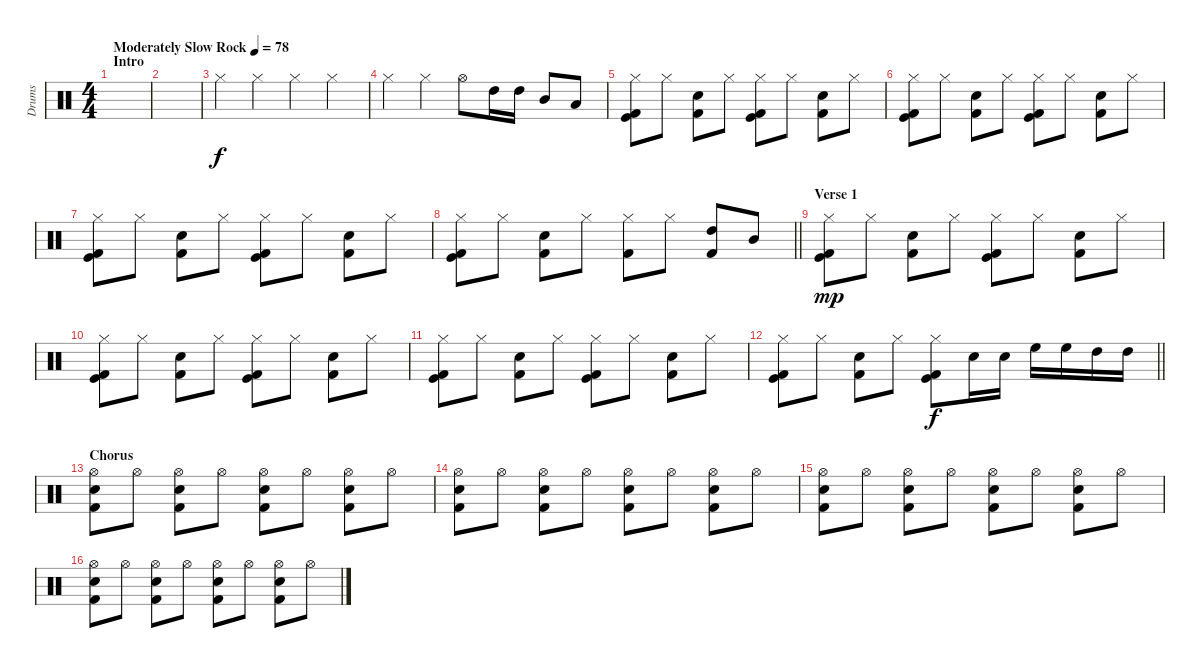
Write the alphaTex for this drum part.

\track ("Drums" "Drums") {instrument percussion}
\staff {score}
\articulation defaults
\ts (4 4)
\section ("" "Intro")
\tempo (78 "Moderately Slow Rock")
\clef neutral
\ks c
|
|
"Hi-Hat (closed)".4 "Hi-Hat (closed)".4 "Hi-Hat (closed)".4 "Hi-Hat (closed)".4 |
"Hi-Hat (closed)".4 "Hi-Hat (closed)".4 "Hi-Hat (open)".8 "High Tom (hit)".16 "High Tom (hit)".16 "Mid Tom (hit)".8 "Low Tom (hit)".8 |
("Hi-Hat (closed)" "Kick (hit)" "Kick (hit) 2").8 "Hi-Hat (closed)".8 ("Snare (hit) 2" "Kick (hit) 2").8 "Hi-Hat (closed)".8 ("Hi-Hat (closed)" "Kick (hit)" "Kick (hit) 2").8 "Hi-Hat (closed)".8 ("Snare (hit) 2" "Kick (hit) 2").8 "Hi-Hat (closed)".8 |
("Hi-Hat (closed)" "Kick (hit)" "Kick (hit) 2").8 "Hi-Hat (closed)".8 ("Snare (hit) 2" "Kick (hit) 2").8 "Hi-Hat (closed)".8 ("Hi-Hat (closed)" "Kick (hit)" "Kick (hit) 2").8 "Hi-Hat (closed)".8 ("Snare (hit) 2" "Kick (hit) 2").8 "Hi-Hat (closed)".8 |
("Hi-Hat (closed)" "Kick (hit)" "Kick (hit) 2").8 "Hi-Hat (closed)".8 ("Snare (hit) 2" "Kick (hit) 2").8 "Hi-Hat (closed)".8 ("Hi-Hat (closed)" "Kick (hit)" "Kick (hit) 2").8 "Hi-Hat (closed)".8 ("Snare (hit) 2" "Kick (hit) 2").8 "Hi-Hat (closed)".8 |
\barLineRight lightlight
("Hi-Hat (closed)" "Kick (hit)" "Kick (hit) 2").8 "Hi-Hat (closed)".8 ("Snare (hit) 2" "Kick (hit) 2").8 "Hi-Hat (closed)".8 ("Hi-Hat (closed)" "Kick (hit) 2").8 "Hi-Hat (closed)".8 ("High Tom (hit)" "Kick (hit) 2").8 "Mid Tom (hit)".8 |
\section ("" "Verse 1")
("Hi-Hat (closed)" "Kick (hit)" "Kick (hit) 2").8{dy mp} "Hi-Hat (closed)".8 ("Snare (hit) 2" "Kick (hit) 2").8 "Hi-Hat (closed)".8 ("Hi-Hat (closed)" "Kick (hit)" "Kick (hit) 2").8 "Hi-Hat (closed)".8 ("Snare (hit) 2" "Kick (hit) 2").8 "Hi-Hat (closed)".8 |
("Hi-Hat (closed)" "Kick (hit)" "Kick (hit) 2").8 "Hi-Hat (closed)".8 ("Snare (hit) 2" "Kick (hit) 2").8 "Hi-Hat (closed)".8 ("Hi-Hat (closed)" "Kick (hit)" "Kick (hit) 2").8 "Hi-Hat (closed)".8 ("Snare (hit) 2" "Kick (hit) 2").8 "Hi-Hat (closed)".8 |
("Hi-Hat (closed)" "Kick (hit)" "Kick (hit) 2").8 "Hi-Hat (closed)".8 ("Snare (hit) 2" "Kick (hit) 2").8 "Hi-Hat (closed)".8 ("Hi-Hat (closed)" "Kick (hit)" "Kick (hit) 2").8 "Hi-Hat (closed)".8 ("Snare (hit) 2" "Kick (hit) 2").8 "Hi-Hat (closed)".8 |
\barLineRight lightlight
("Hi-Hat (closed)" "Kick (hit)" "Kick (hit) 2").8 "Hi-Hat (closed)".8 ("Snare (hit) 2" "Kick (hit) 2").8 "Hi-Hat (closed)".8 ("Hi-Hat (closed)" "Kick (hit)" "Kick (hit) 2").8{dy f} "Snare (hit) 2".16 "Snare (hit) 2".16 "High Floor Tom (hit)".16 "High Floor Tom (hit)".16 "High Tom (hit)".16 "High Tom (hit)".16 |
\section ("" "Chorus")
("Hi-Hat (open)" "Snare (hit) 2" "Kick (hit) 2").8 "Hi-Hat (open)".8 ("Hi-Hat (open)" "Snare (hit) 2" "Kick (hit) 2").8 "Hi-Hat (open)".8 ("Hi-Hat (open)" "Snare (hit) 2" "Kick (hit) 2").8 "Hi-Hat (open)".8 ("Hi-Hat (open)" "Snare (hit) 2" "Kick (hit) 2").8 "Hi-Hat (open)".8 |
("Hi-Hat (open)" "Snare (hit) 2" "Kick (hit) 2").8 "Hi-Hat (open)".8 ("Hi-Hat (open)" "Snare (hit) 2" "Kick (hit) 2").8 "Hi-Hat (open)".8 ("Hi-Hat (open)" "Snare (hit) 2" "Kick (hit) 2").8 "Hi-Hat (open)".8 ("Hi-Hat (open)" "Snare (hit) 2" "Kick (hit) 2").8 "Hi-Hat (open)".8 |
("Hi-Hat (open)" "Snare (hit) 2" "Kick (hit) 2").8 "Hi-Hat (open)".8 ("Hi-Hat (open)" "Snare (hit) 2" "Kick (hit) 2").8 "Hi-Hat (open)".8 ("Hi-Hat (open)" "Snare (hit) 2" "Kick (hit) 2").8 "Hi-Hat (open)".8 ("Hi-Hat (open)" "Snare (hit) 2" "Kick (hit) 2").8 "Hi-Hat (open)".8 |
("Hi-Hat (open)" "Snare (hit) 2" "Kick (hit) 2").8 "Hi-Hat (open)".8 ("Hi-Hat (open)" "Snare (hit) 2" "Kick (hit) 2").8 "Hi-Hat (open)".8 ("Hi-Hat (open)" "Snare (hit) 2" "Kick (hit) 2").8 "Hi-Hat (open)".8 ("Hi-Hat (open)" "Snare (hit) 2" "Kick (hit) 2").8 "Hi-Hat (open)".8
